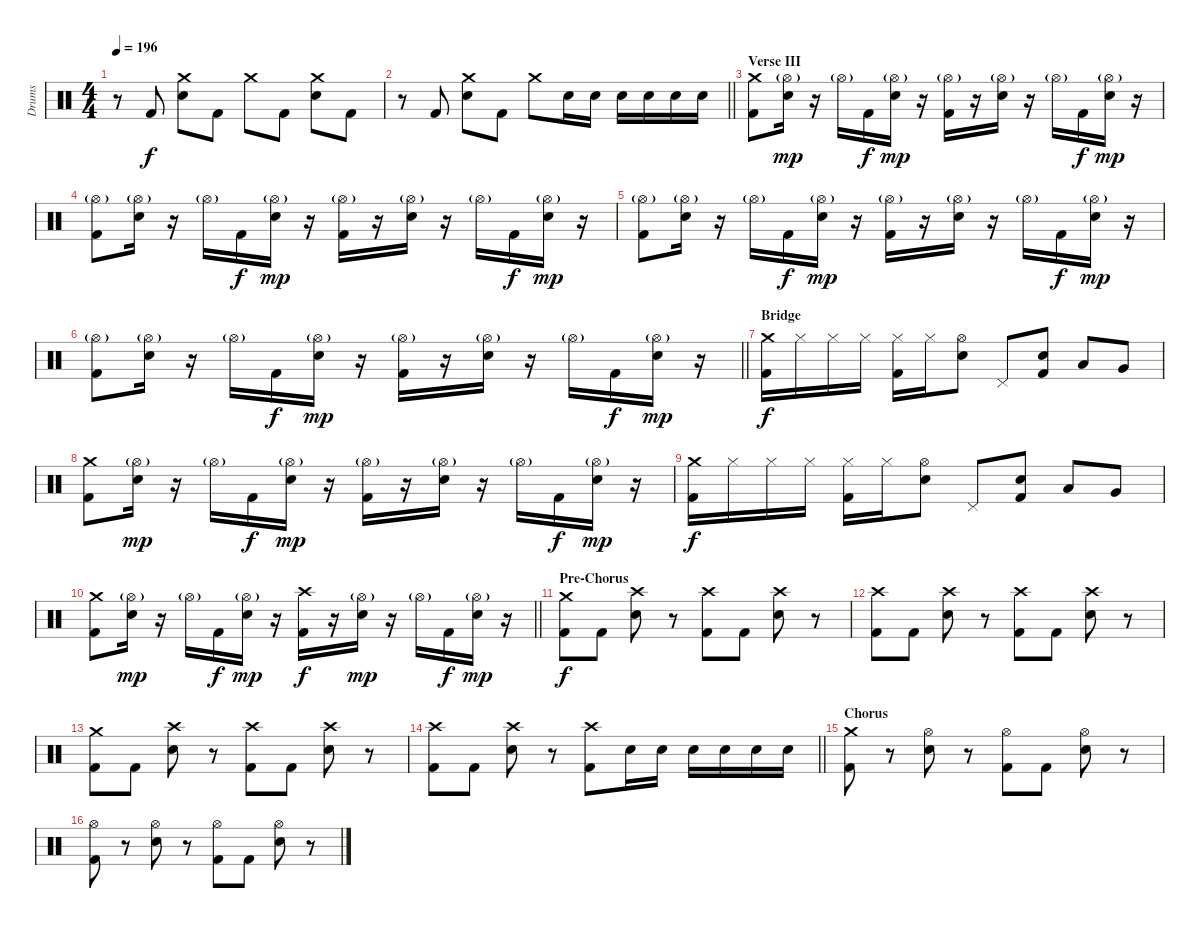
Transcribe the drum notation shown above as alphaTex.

\track ("Drums" "Drums") {instrument percussion}
\staff {score}
\articulation defaults
\ts (4 4)
\tempo 196
\clef neutral
\ks c
r.8{dy f} "Kick (hit) 2".8 ("Crash medium (hit)" "Electric Snare (hit)").8 "Kick (hit) 2".8 "Crash medium (hit)".8 "Kick (hit) 2".8 ("Crash medium (hit)" "Electric Snare (hit)").8 "Kick (hit) 2".8 |
\barLineRight lightlight
r.8 "Kick (hit) 2".8 ("Crash medium (hit)" "Electric Snare (hit)").8 "Kick (hit) 2".8 "Crash medium (hit)".8 "Electric Snare (hit)".16 "Electric Snare (hit)".16 "Electric Snare (hit)".16 "Electric Snare (hit)".16 "Electric Snare (hit)".16 "Electric Snare (hit)".16 |
\section ("" "Verse III")
("Crash medium (hit)" "Kick (hit) 2").8 ("Hi-Hat (open)"{g} "Electric Snare (hit)").16{dy mp} r.16 "Hi-Hat (open)"{g}.16 "Kick (hit) 2".16{dy f} ("Hi-Hat (open)"{g} "Electric Snare (hit)").16{dy mp} r.16 ("Hi-Hat (open)"{g} "Kick (hit) 2").16 r.16 ("Hi-Hat (open)"{g} "Electric Snare (hit)").16 r.16 "Hi-Hat (open)"{g}.16 "Kick (hit) 2".16{dy f} ("Hi-Hat (open)"{g} "Electric Snare (hit)").16{dy mp} r.16 |
("Hi-Hat (open)"{g} "Kick (hit) 2").8 ("Hi-Hat (open)"{g} "Electric Snare (hit)").16 r.16 "Hi-Hat (open)"{g}.16 "Kick (hit) 2".16{dy f} ("Hi-Hat (open)"{g} "Electric Snare (hit)").16{dy mp} r.16 ("Hi-Hat (open)"{g} "Kick (hit) 2").16 r.16 ("Hi-Hat (open)"{g} "Electric Snare (hit)").16 r.16 "Hi-Hat (open)"{g}.16 "Kick (hit) 2".16{dy f} ("Hi-Hat (open)"{g} "Electric Snare (hit)").16{dy mp} r.16 |
("Hi-Hat (open)"{g} "Kick (hit) 2").8 ("Hi-Hat (open)"{g} "Electric Snare (hit)").16 r.16 "Hi-Hat (open)"{g}.16 "Kick (hit) 2".16{dy f} ("Hi-Hat (open)"{g} "Electric Snare (hit)").16{dy mp} r.16 ("Hi-Hat (open)"{g} "Kick (hit) 2").16 r.16 ("Hi-Hat (open)"{g} "Electric Snare (hit)").16 r.16 "Hi-Hat (open)"{g}.16 "Kick (hit) 2".16{dy f} ("Hi-Hat (open)"{g} "Electric Snare (hit)").16{dy mp} r.16 |
\barLineRight lightlight
("Hi-Hat (open)"{g} "Kick (hit) 2").8 ("Hi-Hat (open)"{g} "Electric Snare (hit)").16 r.16 "Hi-Hat (open)"{g}.16 "Kick (hit) 2".16{dy f} ("Hi-Hat (open)"{g} "Electric Snare (hit)").16{dy mp} r.16 ("Hi-Hat (open)"{g} "Kick (hit) 2").16 r.16 ("Hi-Hat (open)"{g} "Electric Snare (hit)").16 r.16 "Hi-Hat (open)"{g}.16 "Kick (hit) 2".16{dy f} ("Hi-Hat (open)"{g} "Electric Snare (hit)").16{dy mp} r.16 |
\section ("" "Bridge")
("Crash medium (hit)" "Kick (hit) 2").16{dy f} "Hi-Hat (closed)".16 "Hi-Hat (closed)".16 "Hi-Hat (closed)".16 ("Hi-Hat (closed)" "Kick (hit) 2").16 "Hi-Hat (closed)".16 ("Hi-Hat (open)" "Electric Snare (hit)").8 "Pedal Hi-Hat (hit)".8 ("Electric Snare (hit)" "Kick (hit) 2").8 "Low Tom (hit)".8 "Very Low Tom (hit)".8 |
("Crash medium (hit)" "Kick (hit) 2").8 ("Hi-Hat (open)"{g} "Electric Snare (hit)").16{dy mp} r.16 "Hi-Hat (open)"{g}.16 "Kick (hit) 2".16{dy f} ("Hi-Hat (open)"{g} "Electric Snare (hit)").16{dy mp} r.16 ("Hi-Hat (open)"{g} "Kick (hit) 2").16 r.16 ("Hi-Hat (open)"{g} "Electric Snare (hit)").16 r.16 "Hi-Hat (open)"{g}.16 "Kick (hit) 2".16{dy f} ("Hi-Hat (open)"{g} "Electric Snare (hit)").16{dy mp} r.16 |
("Crash medium (hit)" "Kick (hit) 2").16{dy f} "Hi-Hat (closed)".16 "Hi-Hat (closed)".16 "Hi-Hat (closed)".16 ("Hi-Hat (closed)" "Kick (hit) 2").16 "Hi-Hat (closed)".16 ("Hi-Hat (open)" "Electric Snare (hit)").8 "Pedal Hi-Hat (hit)".8 ("Electric Snare (hit)" "Kick (hit) 2").8 "Low Tom (hit)".8 "Very Low Tom (hit)".8 |
\barLineRight lightlight
("Crash medium (hit)" "Kick (hit) 2").8 ("Hi-Hat (open)"{g} "Electric Snare (hit)").16{dy mp} r.16 "Hi-Hat (open)"{g}.16 "Kick (hit) 2".16{dy f} ("Hi-Hat (open)"{g} "Electric Snare (hit)").16{dy mp} r.16 ("Crash high (hit)" "Kick (hit) 2").16{dy f} r.16 ("Hi-Hat (open)"{g} "Electric Snare (hit)").16{dy mp} r.16 "Hi-Hat (open)"{g}.16 "Kick (hit) 2".16{dy f} ("Hi-Hat (open)"{g} "Electric Snare (hit)").16{dy mp} r.16 |
\section ("" "Pre-Chorus")
("Crash medium (hit)" "Kick (hit) 2").8{dy f} "Kick (hit) 2".8 ("Crash high (hit)" "Electric Snare (hit)").8 r.8 ("Crash high (hit)" "Kick (hit) 2").8 "Kick (hit) 2".8 ("Crash high (hit)" "Electric Snare (hit)").8 r.8 |
("Crash high (hit)" "Kick (hit) 2").8 "Kick (hit) 2".8 ("Crash high (hit)" "Electric Snare (hit)").8 r.8 ("Crash high (hit)" "Kick (hit) 2").8 "Kick (hit) 2".8 ("Crash high (hit)" "Electric Snare (hit)").8 r.8 |
("Crash medium (hit)" "Kick (hit) 2").8 "Kick (hit) 2".8 ("Crash high (hit)" "Electric Snare (hit)").8 r.8 ("Crash high (hit)" "Kick (hit) 2").8 "Kick (hit) 2".8 ("Crash high (hit)" "Electric Snare (hit)").8 r.8 |
\barLineRight lightlight
("Crash high (hit)" "Kick (hit) 2").8 "Kick (hit) 2".8 ("Crash high (hit)" "Electric Snare (hit)").8 r.8 ("Crash high (hit)" "Kick (hit) 2").8 "Electric Snare (hit)".16 "Electric Snare (hit)".16 "Electric Snare (hit)".16 "Electric Snare (hit)".16 "Electric Snare (hit)".16 "Electric Snare (hit)".16 |
\section ("" "Chorus")
("Crash medium (hit)" "Kick (hit) 2").8 r.8 ("Hi-Hat (open)" "Electric Snare (hit)").8 r.8 ("Hi-Hat (open)" "Kick (hit) 2").8 "Kick (hit) 2".8 ("Hi-Hat (open)" "Electric Snare (hit)").8 r.8 |
("Hi-Hat (open)" "Kick (hit) 2").8 r.8 ("Hi-Hat (open)" "Electric Snare (hit)").8 r.8 ("Hi-Hat (open)" "Kick (hit) 2").8 "Kick (hit) 2".8 ("Hi-Hat (open)" "Electric Snare (hit)").8 r.8
